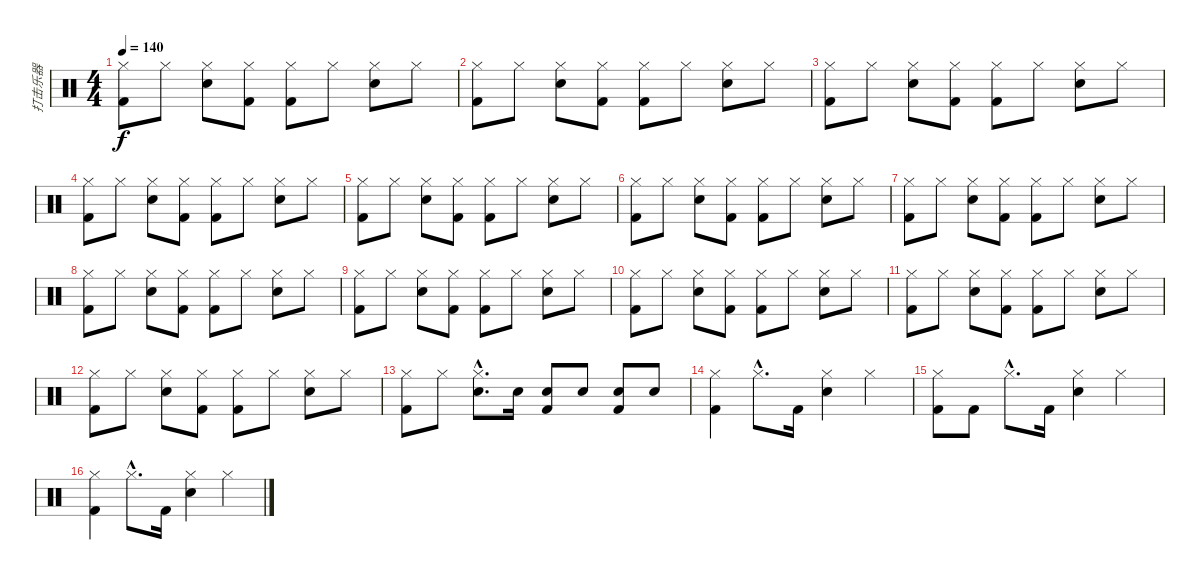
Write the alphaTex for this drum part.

\track ("打击乐器" "打击乐器") {instrument percussion}
\staff {score}
\articulation defaults
\ts (4 4)
\tempo 140
\clef neutral
\ks c
("Hi-Hat (closed)" "Kick (hit) 2").8{dy f} "Hi-Hat (closed)".8 ("Hi-Hat (closed)" "Snare (hit) 2").8 ("Hi-Hat (closed)" "Kick (hit) 2").8 ("Hi-Hat (closed)" "Kick (hit) 2").8 "Hi-Hat (closed)".8 ("Hi-Hat (closed)" "Snare (hit) 2").8 "Hi-Hat (closed)".8 |
("Hi-Hat (closed)" "Kick (hit) 2").8 "Hi-Hat (closed)".8 ("Hi-Hat (closed)" "Snare (hit) 2").8 ("Hi-Hat (closed)" "Kick (hit) 2").8 ("Hi-Hat (closed)" "Kick (hit) 2").8 "Hi-Hat (closed)".8 ("Hi-Hat (closed)" "Snare (hit) 2").8 "Hi-Hat (closed)".8 |
("Hi-Hat (closed)" "Kick (hit) 2").8 "Hi-Hat (closed)".8 ("Hi-Hat (closed)" "Snare (hit) 2").8 ("Hi-Hat (closed)" "Kick (hit) 2").8 ("Hi-Hat (closed)" "Kick (hit) 2").8 "Hi-Hat (closed)".8 ("Hi-Hat (closed)" "Snare (hit) 2").8 "Hi-Hat (closed)".8 |
("Hi-Hat (closed)" "Kick (hit) 2").8 "Hi-Hat (closed)".8 ("Hi-Hat (closed)" "Snare (hit) 2").8 ("Hi-Hat (closed)" "Kick (hit) 2").8 ("Hi-Hat (closed)" "Kick (hit) 2").8 "Hi-Hat (closed)".8 ("Hi-Hat (closed)" "Snare (hit) 2").8 "Hi-Hat (closed)".8 |
("Hi-Hat (closed)" "Kick (hit) 2").8 "Hi-Hat (closed)".8 ("Hi-Hat (closed)" "Snare (hit) 2").8 ("Hi-Hat (closed)" "Kick (hit) 2").8 ("Hi-Hat (closed)" "Kick (hit) 2").8 "Hi-Hat (closed)".8 ("Hi-Hat (closed)" "Snare (hit) 2").8 "Hi-Hat (closed)".8 |
("Hi-Hat (closed)" "Kick (hit) 2").8 "Hi-Hat (closed)".8 ("Hi-Hat (closed)" "Snare (hit) 2").8 ("Hi-Hat (closed)" "Kick (hit) 2").8 ("Hi-Hat (closed)" "Kick (hit) 2").8 "Hi-Hat (closed)".8 ("Hi-Hat (closed)" "Snare (hit) 2").8 "Hi-Hat (closed)".8 |
("Hi-Hat (closed)" "Kick (hit) 2").8 "Hi-Hat (closed)".8 ("Hi-Hat (closed)" "Snare (hit) 2").8 ("Hi-Hat (closed)" "Kick (hit) 2").8 ("Hi-Hat (closed)" "Kick (hit) 2").8 "Hi-Hat (closed)".8 ("Hi-Hat (closed)" "Snare (hit) 2").8 "Hi-Hat (closed)".8 |
("Hi-Hat (closed)" "Kick (hit) 2").8 "Hi-Hat (closed)".8 ("Hi-Hat (closed)" "Snare (hit) 2").8 ("Hi-Hat (closed)" "Kick (hit) 2").8 ("Hi-Hat (closed)" "Kick (hit) 2").8 "Hi-Hat (closed)".8 ("Hi-Hat (closed)" "Snare (hit) 2").8 "Hi-Hat (closed)".8 |
("Hi-Hat (closed)" "Kick (hit) 2").8 "Hi-Hat (closed)".8 ("Hi-Hat (closed)" "Snare (hit) 2").8 ("Hi-Hat (closed)" "Kick (hit) 2").8 ("Hi-Hat (closed)" "Kick (hit) 2").8 "Hi-Hat (closed)".8 ("Hi-Hat (closed)" "Snare (hit) 2").8 "Hi-Hat (closed)".8 |
("Hi-Hat (closed)" "Kick (hit) 2").8 "Hi-Hat (closed)".8 ("Hi-Hat (closed)" "Snare (hit) 2").8 ("Hi-Hat (closed)" "Kick (hit) 2").8 ("Hi-Hat (closed)" "Kick (hit) 2").8 "Hi-Hat (closed)".8 ("Hi-Hat (closed)" "Snare (hit) 2").8 "Hi-Hat (closed)".8 |
("Hi-Hat (closed)" "Kick (hit) 2").8 "Hi-Hat (closed)".8 ("Hi-Hat (closed)" "Snare (hit) 2").8 ("Hi-Hat (closed)" "Kick (hit) 2").8 ("Hi-Hat (closed)" "Kick (hit) 2").8 "Hi-Hat (closed)".8 ("Hi-Hat (closed)" "Snare (hit) 2").8 "Hi-Hat (closed)".8 |
("Hi-Hat (closed)" "Kick (hit) 2").8 "Hi-Hat (closed)".8 ("Hi-Hat (closed)" "Snare (hit) 2").8 ("Hi-Hat (closed)" "Kick (hit) 2").8 ("Hi-Hat (closed)" "Kick (hit) 2").8 "Hi-Hat (closed)".8 ("Hi-Hat (closed)" "Snare (hit) 2").8 "Hi-Hat (closed)".8 |
("Hi-Hat (closed)" "Kick (hit) 2").8 "Hi-Hat (closed)".8 ("Hi-Hat (closed)"{hac} "Snare (hit) 2"{hac}).8{d} "Snare (hit) 2".16 ("Snare (hit) 2" "Kick (hit) 2").8 "Snare (hit) 2".8 ("Snare (hit) 2" "Kick (hit) 2").8 "Snare (hit) 2".8 |
("Hi-Hat (closed)" "Kick (hit) 2").4 "Hi-Hat (closed)"{hac}.8{d} "Kick (hit) 2".16 ("Hi-Hat (closed)" "Snare (hit) 2").4 "Hi-Hat (closed)".4 |
("Hi-Hat (closed)" "Kick (hit) 2").8 "Kick (hit) 2".8 "Hi-Hat (closed)"{hac}.8{d} "Kick (hit) 2".16 ("Hi-Hat (closed)" "Snare (hit) 2").4 "Hi-Hat (closed)".4 |
("Hi-Hat (closed)" "Kick (hit) 2").4 "Hi-Hat (closed)"{hac}.8{d} "Kick (hit) 2".16 ("Hi-Hat (closed)" "Snare (hit) 2").4 "Hi-Hat (closed)".4
